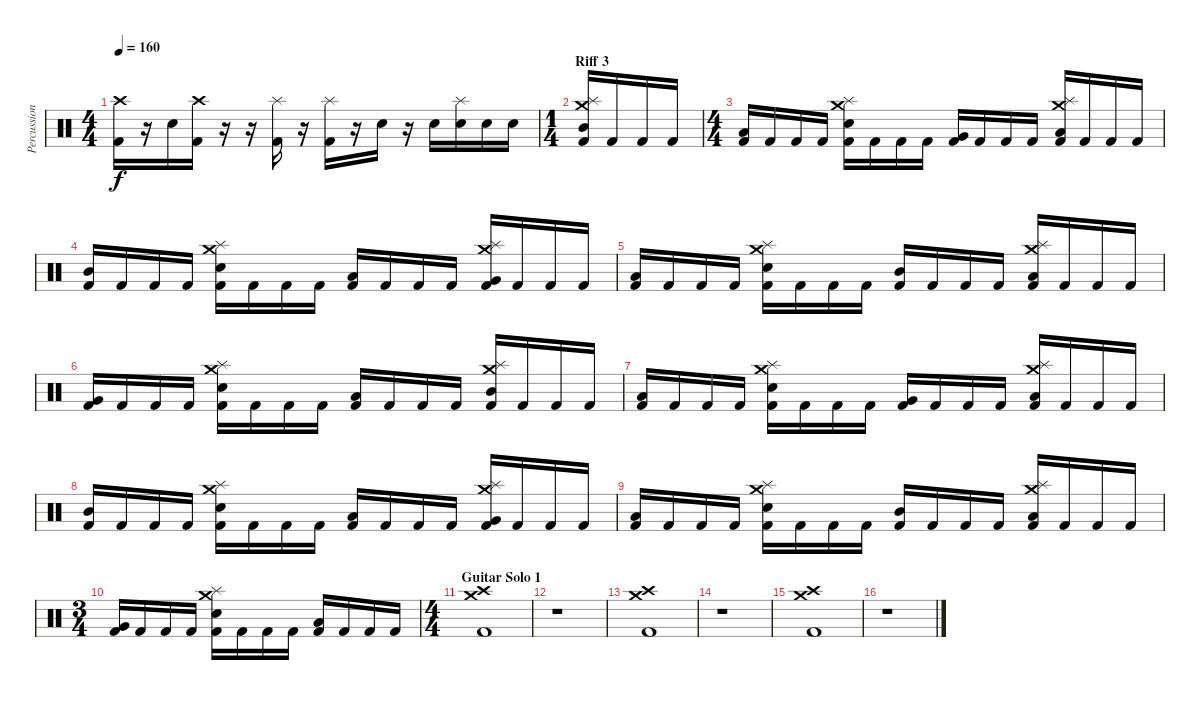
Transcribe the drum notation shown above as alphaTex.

\track ("Percussion" "Percussion") {instrument percussion}
\staff {score}
\articulation defaults
\ts (4 4)
\tempo 160
\clef neutral
\ks c
("Crash high (hit)" "Kick (hit) 2").16{dy f} r.16 "Electric Snare (hit)".16 ("Crash high (hit)" "Kick (hit) 2").16 r.16 r.16 ("Splash (hit)" "Kick (hit) 2").16 r.16 ("Splash (hit)" "Kick (hit) 2").16 r.16 "Electric Snare (hit)".16 r.16 "Electric Snare (hit)".16 ("Splash (hit)" "Electric Snare (hit)").16 "Electric Snare (hit)".16 "Electric Snare (hit)".16 |
\ts (1 4)
\section ("" "Riff 3")
("Crash medium (hit)" "Splash (hit)" "Mid Tom (hit)" "Kick (hit) 2").16 "Kick (hit) 2".16 "Kick (hit) 2".16 "Kick (hit) 2".16 |
\ts (4 4)
("Low Tom (hit)" "Kick (hit) 2").16 "Kick (hit) 2".16 "Kick (hit) 2".16 "Kick (hit) 2".16 ("Crash medium (hit)" "Splash (hit)" "Electric Snare (hit)" "Kick (hit) 2").16 "Kick (hit) 2".16 "Kick (hit) 2".16 "Kick (hit) 2".16 ("Very Low Tom (hit)" "Kick (hit) 2").16 "Kick (hit) 2".16 "Kick (hit) 2".16 "Kick (hit) 2".16 ("Crash medium (hit)" "Splash (hit)" "Low Floor Tom (hit)" "Kick (hit) 2").16 "Kick (hit) 2".16 "Kick (hit) 2".16 "Kick (hit) 2".16 |
("Mid Tom (hit)" "Kick (hit) 2").16 "Kick (hit) 2".16 "Kick (hit) 2".16 "Kick (hit) 2".16 ("Crash medium (hit)" "Splash (hit)" "Electric Snare (hit)" "Kick (hit) 2").16 "Kick (hit) 2".16 "Kick (hit) 2".16 "Kick (hit) 2".16 ("Low Tom (hit)" "Kick (hit) 2").16 "Kick (hit) 2".16 "Kick (hit) 2".16 "Kick (hit) 2".16 ("Crash medium (hit)" "Splash (hit)" "Very Low Tom (hit)" "Kick (hit) 2").16 "Kick (hit) 2".16 "Kick (hit) 2".16 "Kick (hit) 2".16 |
("Low Floor Tom (hit)" "Kick (hit) 2").16 "Kick (hit) 2".16 "Kick (hit) 2".16 "Kick (hit) 2".16 ("Crash medium (hit)" "Splash (hit)" "Electric Snare (hit)" "Kick (hit) 2").16 "Kick (hit) 2".16 "Kick (hit) 2".16 "Kick (hit) 2".16 ("Mid Tom (hit)" "Kick (hit) 2").16 "Kick (hit) 2".16 "Kick (hit) 2".16 "Kick (hit) 2".16 ("Crash medium (hit)" "Splash (hit)" "Low Tom (hit)" "Kick (hit) 2").16 "Kick (hit) 2".16 "Kick (hit) 2".16 "Kick (hit) 2".16 |
("Very Low Tom (hit)" "Kick (hit) 2").16 "Kick (hit) 2".16 "Kick (hit) 2".16 "Kick (hit) 2".16 ("Crash medium (hit)" "Splash (hit)" "Electric Snare (hit)" "Kick (hit) 2").16 "Kick (hit) 2".16 "Kick (hit) 2".16 "Kick (hit) 2".16 ("Low Floor Tom (hit)" "Kick (hit) 2").16 "Kick (hit) 2".16 "Kick (hit) 2".16 "Kick (hit) 2".16 ("Crash medium (hit)" "Splash (hit)" "Mid Tom (hit)" "Kick (hit) 2").16 "Kick (hit) 2".16 "Kick (hit) 2".16 "Kick (hit) 2".16 |
("Low Tom (hit)" "Kick (hit) 2").16 "Kick (hit) 2".16 "Kick (hit) 2".16 "Kick (hit) 2".16 ("Crash medium (hit)" "Splash (hit)" "Electric Snare (hit)" "Kick (hit) 2").16 "Kick (hit) 2".16 "Kick (hit) 2".16 "Kick (hit) 2".16 ("Very Low Tom (hit)" "Kick (hit) 2").16 "Kick (hit) 2".16 "Kick (hit) 2".16 "Kick (hit) 2".16 ("Crash medium (hit)" "Splash (hit)" "Low Floor Tom (hit)" "Kick (hit) 2").16 "Kick (hit) 2".16 "Kick (hit) 2".16 "Kick (hit) 2".16 |
("Mid Tom (hit)" "Kick (hit) 2").16 "Kick (hit) 2".16 "Kick (hit) 2".16 "Kick (hit) 2".16 ("Crash medium (hit)" "Splash (hit)" "Electric Snare (hit)" "Kick (hit) 2").16 "Kick (hit) 2".16 "Kick (hit) 2".16 "Kick (hit) 2".16 ("Low Tom (hit)" "Kick (hit) 2").16 "Kick (hit) 2".16 "Kick (hit) 2".16 "Kick (hit) 2".16 ("Crash medium (hit)" "Splash (hit)" "Very Low Tom (hit)" "Kick (hit) 2").16 "Kick (hit) 2".16 "Kick (hit) 2".16 "Kick (hit) 2".16 |
("Low Floor Tom (hit)" "Kick (hit) 2").16 "Kick (hit) 2".16 "Kick (hit) 2".16 "Kick (hit) 2".16 ("Crash medium (hit)" "Splash (hit)" "Electric Snare (hit)" "Kick (hit) 2").16 "Kick (hit) 2".16 "Kick (hit) 2".16 "Kick (hit) 2".16 ("Mid Tom (hit)" "Kick (hit) 2").16 "Kick (hit) 2".16 "Kick (hit) 2".16 "Kick (hit) 2".16 ("Crash medium (hit)" "Splash (hit)" "Low Tom (hit)" "Kick (hit) 2").16 "Kick (hit) 2".16 "Kick (hit) 2".16 "Kick (hit) 2".16 |
\ts (3 4)
("Very Low Tom (hit)" "Kick (hit) 2").16 "Kick (hit) 2".16 "Kick (hit) 2".16 "Kick (hit) 2".16 ("Crash medium (hit)" "Splash (hit)" "Electric Snare (hit)" "Kick (hit) 2").16 "Kick (hit) 2".16 "Kick (hit) 2".16 "Kick (hit) 2".16 ("Low Floor Tom (hit)" "Kick (hit) 2").16 "Kick (hit) 2".16 "Kick (hit) 2".16 "Kick (hit) 2".16 |
\ts (4 4)
\section ("" "Guitar Solo 1")
("Crash medium (hit)" "Crash high (hit)" "Kick (hit) 2").1 |
r.1 |
("Crash medium (hit)" "Crash high (hit)" "Kick (hit) 2").1 |
r.1 |
("Crash medium (hit)" "Crash high (hit)" "Kick (hit) 2").1 |
r.1
